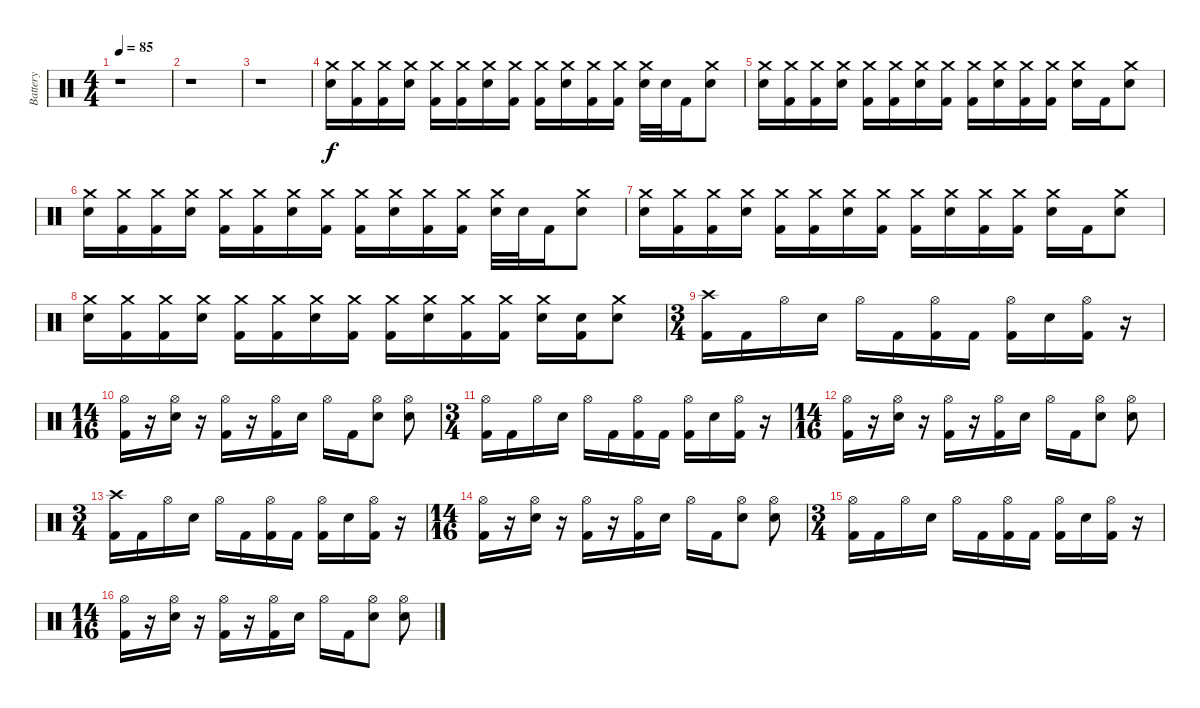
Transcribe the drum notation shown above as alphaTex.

\track ("Battery" "Battery") {instrument percussion}
\staff {score}
\articulation defaults
\ts (4 4)
\tempo 85
\clef neutral
\ks c
r.1{dy f} |
r.1 |
r.1 |
("Snare (hit) 2" "Crash medium (hit)").16 ("Crash medium (hit)" "Kick (hit) 2").16 ("Crash medium (hit)" "Kick (hit) 2").16 ("Snare (hit) 2" "Crash medium (hit)").16 ("Crash medium (hit)" "Kick (hit) 2").16 ("Crash medium (hit)" "Kick (hit) 2").16 ("Snare (hit) 2" "Crash medium (hit)").16 ("Crash medium (hit)" "Kick (hit) 2").16 ("Crash medium (hit)" "Kick (hit) 2").16 ("Snare (hit) 2" "Crash medium (hit)").16 ("Crash medium (hit)" "Kick (hit) 2").16 ("Crash medium (hit)" "Kick (hit) 2").16 ("Snare (hit) 2" "Crash medium (hit)").32 "Snare (hit) 2".32 "Kick (hit) 2".16 ("Snare (hit) 2" "Crash medium (hit)").8 |
("Snare (hit) 2" "Crash medium (hit)").16 ("Crash medium (hit)" "Kick (hit) 2").16 ("Crash medium (hit)" "Kick (hit) 2").16 ("Snare (hit) 2" "Crash medium (hit)").16 ("Crash medium (hit)" "Kick (hit) 2").16 ("Crash medium (hit)" "Kick (hit) 2").16 ("Snare (hit) 2" "Crash medium (hit)").16 ("Crash medium (hit)" "Kick (hit) 2").16 ("Crash medium (hit)" "Kick (hit) 2").16 ("Snare (hit) 2" "Crash medium (hit)").16 ("Crash medium (hit)" "Kick (hit) 2").16 ("Crash medium (hit)" "Kick (hit) 2").16 ("Snare (hit) 2" "Crash medium (hit)").16 "Kick (hit) 2".16 ("Snare (hit) 2" "Crash medium (hit)").8 |
("Snare (hit) 2" "Crash medium (hit)").16 ("Crash medium (hit)" "Kick (hit) 2").16 ("Crash medium (hit)" "Kick (hit) 2").16 ("Snare (hit) 2" "Crash medium (hit)").16 ("Crash medium (hit)" "Kick (hit) 2").16 ("Crash medium (hit)" "Kick (hit) 2").16 ("Snare (hit) 2" "Crash medium (hit)").16 ("Crash medium (hit)" "Kick (hit) 2").16 ("Crash medium (hit)" "Kick (hit) 2").16 ("Snare (hit) 2" "Crash medium (hit)").16 ("Crash medium (hit)" "Kick (hit) 2").16 ("Crash medium (hit)" "Kick (hit) 2").16 ("Snare (hit) 2" "Crash medium (hit)").32 "Snare (hit) 2".32 "Kick (hit) 2".16 ("Snare (hit) 2" "Crash medium (hit)").8 |
("Snare (hit) 2" "Crash medium (hit)").16 ("Crash medium (hit)" "Kick (hit) 2").16 ("Crash medium (hit)" "Kick (hit) 2").16 ("Snare (hit) 2" "Crash medium (hit)").16 ("Crash medium (hit)" "Kick (hit) 2").16 ("Crash medium (hit)" "Kick (hit) 2").16 ("Snare (hit) 2" "Crash medium (hit)").16 ("Crash medium (hit)" "Kick (hit) 2").16 ("Crash medium (hit)" "Kick (hit) 2").16 ("Snare (hit) 2" "Crash medium (hit)").16 ("Crash medium (hit)" "Kick (hit) 2").16 ("Crash medium (hit)" "Kick (hit) 2").16 ("Snare (hit) 2" "Crash medium (hit)").16 "Kick (hit) 2".16 ("Snare (hit) 2" "Crash medium (hit)").8 |
("Snare (hit) 2" "Crash medium (hit)").16 ("Crash medium (hit)" "Kick (hit) 2").16 ("Crash medium (hit)" "Kick (hit) 2").16 ("Snare (hit) 2" "Crash medium (hit)").16 ("Crash medium (hit)" "Kick (hit) 2").16 ("Crash medium (hit)" "Kick (hit) 2").16 ("Snare (hit) 2" "Crash medium (hit)").16 ("Crash medium (hit)" "Kick (hit) 2").16 ("Crash medium (hit)" "Kick (hit) 2").16 ("Snare (hit) 2" "Crash medium (hit)").16 ("Crash medium (hit)" "Kick (hit) 2").16 ("Crash medium (hit)" "Kick (hit) 2").16 ("Snare (hit) 2" "Crash medium (hit)").16 ("Snare (hit) 2" "Kick (hit) 2").16 ("Snare (hit) 2" "Crash medium (hit)").8 |
\ts (3 4)
("Crash high (hit)" "Kick (hit) 2").16 "Kick (hit) 2".16 "Hi-Hat (open)".16 "Snare (hit) 2".16 "Hi-Hat (open)".16 "Kick (hit) 2".16 ("Hi-Hat (open)" "Kick (hit) 2").16 "Kick (hit) 2".16 ("Hi-Hat (open)" "Kick (hit) 2").16 "Snare (hit) 2".16 ("Hi-Hat (open)" "Kick (hit) 2").16 r.16 |
\ts (14 16)
("Hi-Hat (open)" "Kick (hit) 2").16 r.16 ("Snare (hit) 2" "Hi-Hat (open)").16 r.16 ("Hi-Hat (open)" "Kick (hit) 2").16 r.16 ("Hi-Hat (open)" "Kick (hit) 2").16 "Snare (hit) 2".16 "Hi-Hat (open)".16 "Kick (hit) 2".16 ("Snare (hit) 2" "Hi-Hat (open)").8 ("Snare (hit) 2" "Hi-Hat (open)").8 |
\ts (3 4)
("Hi-Hat (open)" "Kick (hit) 2").16 "Kick (hit) 2".16 "Hi-Hat (open)".16 "Snare (hit) 2".16 "Hi-Hat (open)".16 "Kick (hit) 2".16 ("Hi-Hat (open)" "Kick (hit) 2").16 "Kick (hit) 2".16 ("Hi-Hat (open)" "Kick (hit) 2").16 "Snare (hit) 2".16 ("Hi-Hat (open)" "Kick (hit) 2").16 r.16 |
\ts (14 16)
("Hi-Hat (open)" "Kick (hit) 2").16 r.16 ("Snare (hit) 2" "Hi-Hat (open)").16 r.16 ("Hi-Hat (open)" "Kick (hit) 2").16 r.16 ("Hi-Hat (open)" "Kick (hit) 2").16 "Snare (hit) 2".16 "Hi-Hat (open)".16 "Kick (hit) 2".16 ("Snare (hit) 2" "Hi-Hat (open)").8 ("Snare (hit) 2" "Hi-Hat (open)").8 |
\ts (3 4)
("Crash high (hit)" "Kick (hit) 2").16 "Kick (hit) 2".16 "Hi-Hat (open)".16 "Snare (hit) 2".16 "Hi-Hat (open)".16 "Kick (hit) 2".16 ("Hi-Hat (open)" "Kick (hit) 2").16 "Kick (hit) 2".16 ("Hi-Hat (open)" "Kick (hit) 2").16 "Snare (hit) 2".16 ("Hi-Hat (open)" "Kick (hit) 2").16 r.16 |
\ts (14 16)
("Hi-Hat (open)" "Kick (hit) 2").16 r.16 ("Snare (hit) 2" "Hi-Hat (open)").16 r.16 ("Hi-Hat (open)" "Kick (hit) 2").16 r.16 ("Hi-Hat (open)" "Kick (hit) 2").16 "Snare (hit) 2".16 "Hi-Hat (open)".16 "Kick (hit) 2".16 ("Snare (hit) 2" "Hi-Hat (open)").8 ("Snare (hit) 2" "Hi-Hat (open)").8 |
\ts (3 4)
("Hi-Hat (open)" "Kick (hit) 2").16 "Kick (hit) 2".16 "Hi-Hat (open)".16 "Snare (hit) 2".16 "Hi-Hat (open)".16 "Kick (hit) 2".16 ("Hi-Hat (open)" "Kick (hit) 2").16 "Kick (hit) 2".16 ("Hi-Hat (open)" "Kick (hit) 2").16 "Snare (hit) 2".16 ("Hi-Hat (open)" "Kick (hit) 2").16 r.16 |
\ts (14 16)
("Hi-Hat (open)" "Kick (hit) 2").16 r.16 ("Snare (hit) 2" "Hi-Hat (open)").16 r.16 ("Hi-Hat (open)" "Kick (hit) 2").16 r.16 ("Hi-Hat (open)" "Kick (hit) 2").16 "Snare (hit) 2".16 "Hi-Hat (open)".16 "Kick (hit) 2".16 ("Snare (hit) 2" "Hi-Hat (open)").8 ("Snare (hit) 2" "Hi-Hat (open)").8
